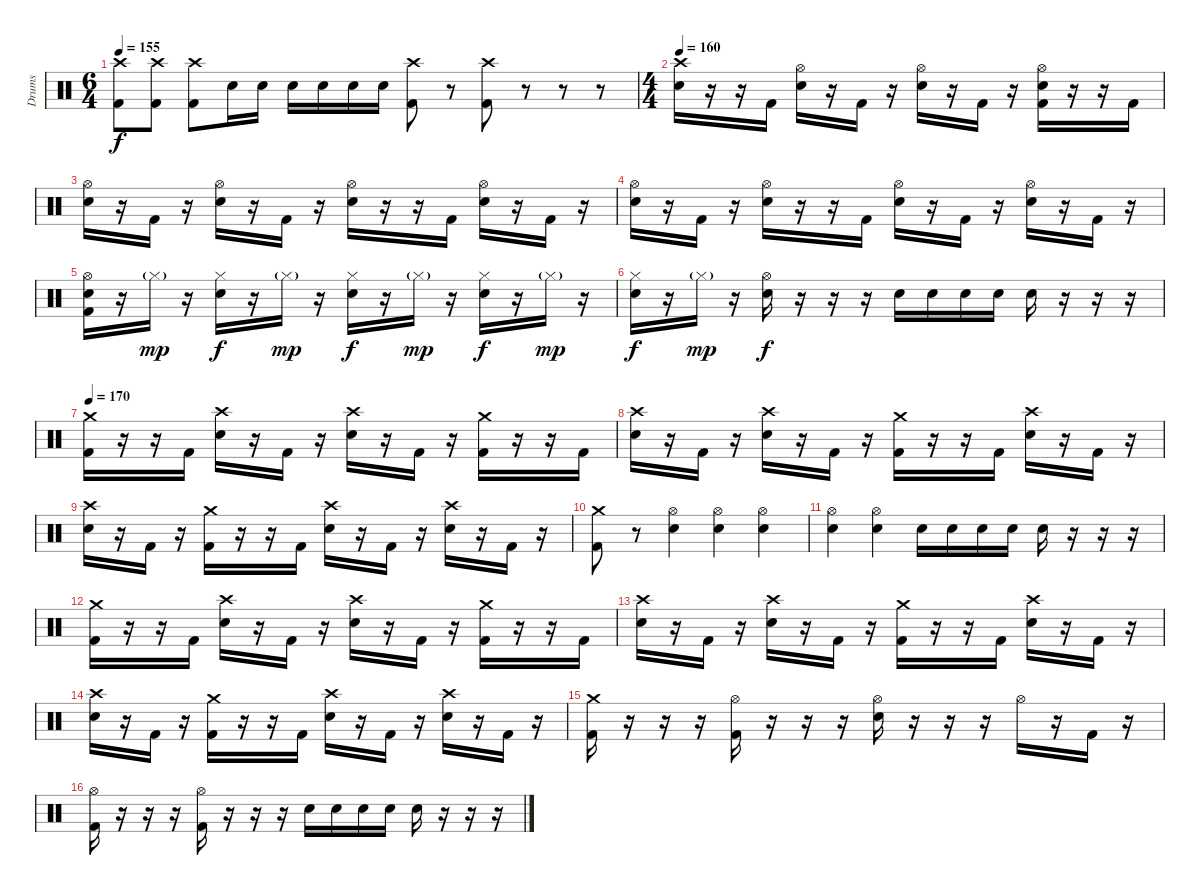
\track ("Drums" "Drums") {instrument percussion}
\staff {score}
\articulation defaults
\ts (6 4)
\tempo 155
\clef neutral
\ks c
("Kick (hit) 2" "Crash high (hit)").8{dy f} ("Kick (hit) 2" "Crash high (hit)").8 ("Kick (hit) 2" "Crash high (hit)").8 "Electric Snare (hit)".16 "Electric Snare (hit)".16 "Electric Snare (hit)".16 "Electric Snare (hit)".16 "Electric Snare (hit)".16 "Electric Snare (hit)".16 ("Kick (hit) 2" "Crash high (hit)").8 r.8 ("Kick (hit) 2" "Crash high (hit)").8 r.8 r.8 r.8 |
\ts (4 4)
\tempo 160
("Electric Snare (hit)" "Crash high (hit)").16 r.16 r.16 "Kick (hit) 2".16 ("Electric Snare (hit)" "Hi-Hat (open)").16 r.16 "Kick (hit) 2".16 r.16 ("Electric Snare (hit)" "Hi-Hat (open)").16 r.16 "Kick (hit) 2".16 r.16 ("Electric Snare (hit)" "Hi-Hat (open)" "Kick (hit) 2").16 r.16 r.16 "Kick (hit) 2".16 |
("Electric Snare (hit)" "Hi-Hat (open)").16 r.16 "Kick (hit) 2".16 r.16 ("Electric Snare (hit)" "Hi-Hat (open)").16 r.16 "Kick (hit) 2".16 r.16 ("Electric Snare (hit)" "Hi-Hat (open)").16 r.16 r.16 "Kick (hit) 2".16 ("Electric Snare (hit)" "Hi-Hat (open)").16 r.16 "Kick (hit) 2".16 r.16 |
("Electric Snare (hit)" "Hi-Hat (open)").16 r.16 "Kick (hit) 2".16 r.16 ("Electric Snare (hit)" "Hi-Hat (open)").16 r.16 r.16 "Kick (hit) 2".16 ("Electric Snare (hit)" "Hi-Hat (open)").16 r.16 "Kick (hit) 2".16 r.16 ("Electric Snare (hit)" "Hi-Hat (open)").16 r.16 "Kick (hit) 2".16 r.16 |
("Electric Snare (hit)" "Hi-Hat (open)" "Kick (hit) 2").16 r.16 "Hi-Hat (closed)"{g}.16{dy mp} r.16 ("Electric Snare (hit)" "Hi-Hat (closed)").16{dy f} r.16 "Hi-Hat (closed)"{g}.16{dy mp} r.16 ("Electric Snare (hit)" "Hi-Hat (closed)").16{dy f} r.16 "Hi-Hat (closed)"{g}.16{dy mp} r.16 ("Electric Snare (hit)" "Hi-Hat (closed)").16{dy f} r.16 "Hi-Hat (closed)"{g}.16{dy mp} r.16 |
("Electric Snare (hit)" "Hi-Hat (closed)").16{dy f} r.16 "Hi-Hat (closed)"{g}.16{dy mp} r.16 ("Electric Snare (hit)" "Hi-Hat (open)").16{dy f} r.16 r.16 r.16 "Electric Snare (hit)".16 "Electric Snare (hit)".16 "Electric Snare (hit)".16 "Electric Snare (hit)".16 "Electric Snare (hit)".16 r.16 r.16 r.16 |
\tempo 170
("Kick (hit) 2" "Crash medium (hit)").16 r.16 r.16 "Kick (hit) 2".16 ("Electric Snare (hit)" "Crash high (hit)").16 r.16 "Kick (hit) 2".16 r.16 ("Electric Snare (hit)" "Crash high (hit)").16 r.16 "Kick (hit) 2".16 r.16 ("Kick (hit) 2" "Crash medium (hit)").16 r.16 r.16 "Kick (hit) 2".16 |
("Electric Snare (hit)" "Crash high (hit)").16 r.16 "Kick (hit) 2".16 r.16 ("Electric Snare (hit)" "Crash high (hit)").16 r.16 "Kick (hit) 2".16 r.16 ("Kick (hit) 2" "Crash medium (hit)").16 r.16 r.16 "Kick (hit) 2".16 ("Electric Snare (hit)" "Crash high (hit)").16 r.16 "Kick (hit) 2".16 r.16 |
("Electric Snare (hit)" "Crash high (hit)").16 r.16 "Kick (hit) 2".16 r.16 ("Kick (hit) 2" "Crash medium (hit)").16 r.16 r.16 "Kick (hit) 2".16 ("Electric Snare (hit)" "Crash high (hit)").16 r.16 "Kick (hit) 2".16 r.16 ("Electric Snare (hit)" "Crash high (hit)").16 r.16 "Kick (hit) 2".16 r.16 |
("Kick (hit) 2" "Crash medium (hit)").8 r.8 ("Electric Snare (hit)" "Hi-Hat (open)").4 ("Electric Snare (hit)" "Hi-Hat (open)").4 ("Electric Snare (hit)" "Hi-Hat (open)").4 |
("Electric Snare (hit)" "Hi-Hat (open)").4 ("Electric Snare (hit)" "Hi-Hat (open)").4 "Electric Snare (hit)".16 "Electric Snare (hit)".16 "Electric Snare (hit)".16 "Electric Snare (hit)".16 "Electric Snare (hit)".16 r.16 r.16 r.16 |
("Kick (hit) 2" "Crash medium (hit)").16 r.16 r.16 "Kick (hit) 2".16 ("Electric Snare (hit)" "Crash high (hit)").16 r.16 "Kick (hit) 2".16 r.16 ("Electric Snare (hit)" "Crash high (hit)").16 r.16 "Kick (hit) 2".16 r.16 ("Kick (hit) 2" "Crash medium (hit)").16 r.16 r.16 "Kick (hit) 2".16 |
("Electric Snare (hit)" "Crash high (hit)").16 r.16 "Kick (hit) 2".16 r.16 ("Electric Snare (hit)" "Crash high (hit)").16 r.16 "Kick (hit) 2".16 r.16 ("Kick (hit) 2" "Crash medium (hit)").16 r.16 r.16 "Kick (hit) 2".16 ("Electric Snare (hit)" "Crash high (hit)").16 r.16 "Kick (hit) 2".16 r.16 |
("Electric Snare (hit)" "Crash high (hit)").16 r.16 "Kick (hit) 2".16 r.16 ("Kick (hit) 2" "Crash medium (hit)").16 r.16 r.16 "Kick (hit) 2".16 ("Electric Snare (hit)" "Crash high (hit)").16 r.16 "Kick (hit) 2".16 r.16 ("Electric Snare (hit)" "Crash high (hit)").16 r.16 "Kick (hit) 2".16 r.16 |
("Kick (hit) 2" "Crash medium (hit)").16 r.16 r.16 r.16 ("Kick (hit) 2" "Hi-Hat (open)").16 r.16 r.16 r.16 ("Electric Snare (hit)" "Hi-Hat (open)").16 r.16 r.16 r.16 "Hi-Hat (open)".16 r.16 "Kick (hit) 2".16 r.16 |
("Kick (hit) 2" "Hi-Hat (open)").16 r.16 r.16 r.16 ("Kick (hit) 2" "Hi-Hat (open)").16 r.16 r.16 r.16 "Electric Snare (hit)".16 "Electric Snare (hit)".16 "Electric Snare (hit)".16 "Electric Snare (hit)".16 "Electric Snare (hit)".16 r.16 r.16 r.16
